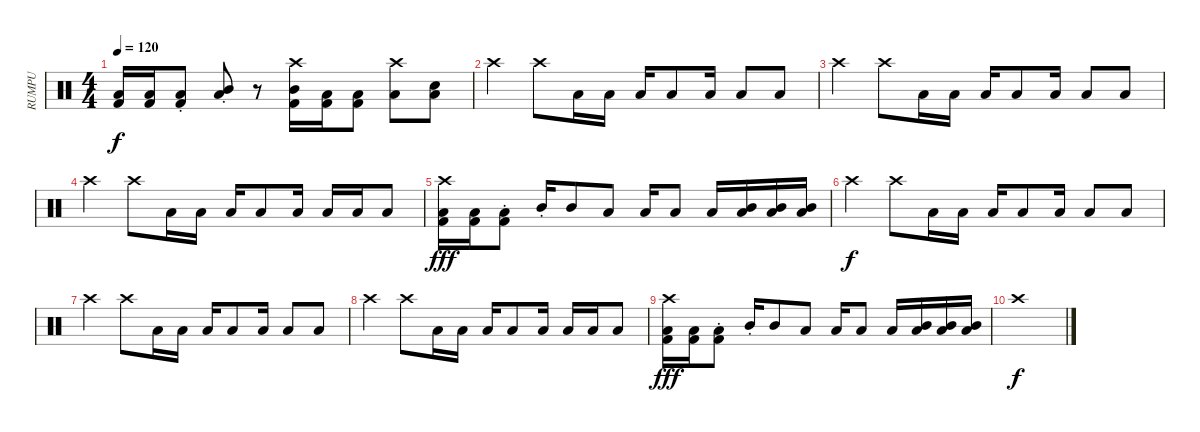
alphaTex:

\track ("RUMPU" "RUMPU") {instrument percussion}
\staff {score}
\articulation defaults
\ts (4 4)
\tempo 120
\clef neutral
\ks c
("Low Tom (hit)" "Kick (hit) 2").16{dy f} ("Low Floor Tom (hit)" "Kick (hit) 2").16 ("Low Floor Tom (hit)" "Kick (hit) 2"{st}).8 ("Mid Tom (hit)"{st} "Low Floor Tom (hit)").8 r.8 ("Mid Tom (hit)" "Crash high (hit)" "Kick (hit) 2").16 ("Low Tom (hit)" "Kick (hit) 2").16 ("Low Floor Tom (hit)" "Kick (hit) 2").8 ("Low Floor Tom (hit)" "Crash high (hit)").8 ("Low Tom (hit)" "Electric Snare (hit)").8 |
"Crash high (hit)".4 "Crash high (hit)".8 "Low Floor Tom (hit)".16 "Low Floor Tom (hit)".16 "Low Floor Tom (hit)".16 "Low Floor Tom (hit)".8 "Low Floor Tom (hit)".16 "Low Floor Tom (hit)".8 "Low Floor Tom (hit)".8 |
"Crash high (hit)".4 "Crash high (hit)".8 "Low Floor Tom (hit)".16 "Low Floor Tom (hit)".16 "Low Floor Tom (hit)".16 "Low Floor Tom (hit)".8 "Low Floor Tom (hit)".16 "Low Floor Tom (hit)".8 "Low Floor Tom (hit)".8 |
"Crash high (hit)".4 "Crash high (hit)".8 "Low Floor Tom (hit)".16 "Low Floor Tom (hit)".16 "Low Floor Tom (hit)".16 "Low Floor Tom (hit)".8 "Low Floor Tom (hit)".16 "Low Floor Tom (hit)".16 "Low Floor Tom (hit)".16 "Low Floor Tom (hit)".8 |
("Low Floor Tom (hit)" "Crash high (hit)" "Kick (hit) 2").16{dy fff} ("Low Floor Tom (hit)" "Kick (hit) 2").16 ("Low Floor Tom (hit)"{st} "Kick (hit) 2").8 "Mid Tom (hit)"{st}.16 "Mid Tom (hit)".8 "Low Floor Tom (hit)".8 "Low Floor Tom (hit)".16 "Low Floor Tom (hit)".8 "Low Floor Tom (hit)".16 ("Low Floor Tom (hit)" "Mid Tom (hit)").16 ("Low Floor Tom (hit)" "Mid Tom (hit)").16 ("Low Floor Tom (hit)" "Mid Tom (hit)").16 |
"Crash high (hit)".4{dy f} "Crash high (hit)".8 "Low Floor Tom (hit)".16 "Low Floor Tom (hit)".16 "Low Floor Tom (hit)".16 "Low Floor Tom (hit)".8 "Low Floor Tom (hit)".16 "Low Floor Tom (hit)".8 "Low Floor Tom (hit)".8 |
"Crash high (hit)".4 "Crash high (hit)".8 "Low Floor Tom (hit)".16 "Low Floor Tom (hit)".16 "Low Floor Tom (hit)".16 "Low Floor Tom (hit)".8 "Low Floor Tom (hit)".16 "Low Floor Tom (hit)".8 "Low Floor Tom (hit)".8 |
"Crash high (hit)".4 "Crash high (hit)".8 "Low Floor Tom (hit)".16 "Low Floor Tom (hit)".16 "Low Floor Tom (hit)".16 "Low Floor Tom (hit)".8 "Low Floor Tom (hit)".16 "Low Floor Tom (hit)".16 "Low Floor Tom (hit)".16 "Low Floor Tom (hit)".8 |
("Low Floor Tom (hit)" "Crash high (hit)" "Kick (hit) 2").16{dy fff} ("Low Floor Tom (hit)" "Kick (hit) 2").16 ("Low Floor Tom (hit)"{st} "Kick (hit) 2").8 "Mid Tom (hit)"{st}.16 "Mid Tom (hit)".8 "Low Floor Tom (hit)".8 "Low Floor Tom (hit)".16 "Low Floor Tom (hit)".8 "Low Floor Tom (hit)".16 ("Low Floor Tom (hit)" "Mid Tom (hit)").16 ("Low Floor Tom (hit)" "Mid Tom (hit)").16 ("Low Floor Tom (hit)" "Mid Tom (hit)").16 |
"Crash high (hit)".1{dy f}
